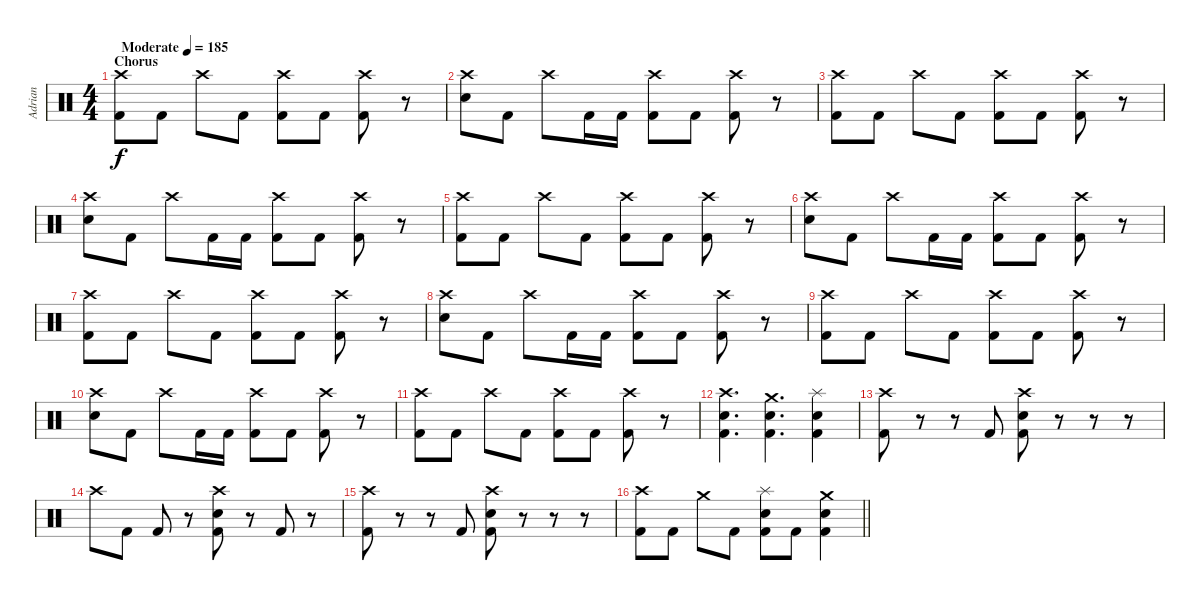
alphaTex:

\track ("Adrian" "Adrian") {instrument percussion}
\staff {score}
\articulation defaults
\ts (4 4)
\section ("" "Chorus")
\tempo (185 "Moderate")
\clef neutral
\ks c
("Crash high (hit)" "Kick (hit) 2").8{dy f} "Kick (hit) 2".8 "Crash high (hit)".8 "Kick (hit) 2".8 ("Crash high (hit)" "Kick (hit) 2").8 "Kick (hit) 2".8 ("Crash high (hit)" "Kick (hit) 2").8 r.8 |
("Crash high (hit)" "Snare (hit) 2").8 "Kick (hit) 2".8 "Crash high (hit)".8 "Kick (hit) 2".16 "Kick (hit) 2".16 ("Crash high (hit)" "Kick (hit) 2").8 "Kick (hit) 2".8 ("Crash high (hit)" "Kick (hit) 2").8 r.8 |
("Crash high (hit)" "Kick (hit) 2").8 "Kick (hit) 2".8 "Crash high (hit)".8 "Kick (hit) 2".8 ("Crash high (hit)" "Kick (hit) 2").8 "Kick (hit) 2".8 ("Crash high (hit)" "Kick (hit) 2").8 r.8 |
("Crash high (hit)" "Snare (hit) 2").8 "Kick (hit) 2".8 "Crash high (hit)".8 "Kick (hit) 2".16 "Kick (hit) 2".16 ("Crash high (hit)" "Kick (hit) 2").8 "Kick (hit) 2".8 ("Crash high (hit)" "Kick (hit) 2").8 r.8 |
("Crash high (hit)" "Kick (hit) 2").8 "Kick (hit) 2".8 "Crash high (hit)".8 "Kick (hit) 2".8 ("Crash high (hit)" "Kick (hit) 2").8 "Kick (hit) 2".8 ("Crash high (hit)" "Kick (hit) 2").8 r.8 |
("Crash high (hit)" "Snare (hit) 2").8 "Kick (hit) 2".8 "Crash high (hit)".8 "Kick (hit) 2".16 "Kick (hit) 2".16 ("Crash high (hit)" "Kick (hit) 2").8 "Kick (hit) 2".8 ("Crash high (hit)" "Kick (hit) 2").8 r.8 |
("Crash high (hit)" "Kick (hit) 2").8 "Kick (hit) 2".8 "Crash high (hit)".8 "Kick (hit) 2".8 ("Crash high (hit)" "Kick (hit) 2").8 "Kick (hit) 2".8 ("Crash high (hit)" "Kick (hit) 2").8 r.8 |
("Crash high (hit)" "Snare (hit) 2").8 "Kick (hit) 2".8 "Crash high (hit)".8 "Kick (hit) 2".16 "Kick (hit) 2".16 ("Crash high (hit)" "Kick (hit) 2").8 "Kick (hit) 2".8 ("Crash high (hit)" "Kick (hit) 2").8 r.8 |
("Crash high (hit)" "Kick (hit) 2").8 "Kick (hit) 2".8 "Crash high (hit)".8 "Kick (hit) 2".8 ("Crash high (hit)" "Kick (hit) 2").8 "Kick (hit) 2".8 ("Crash high (hit)" "Kick (hit) 2").8 r.8 |
("Crash high (hit)" "Snare (hit) 2").8 "Kick (hit) 2".8 "Crash high (hit)".8 "Kick (hit) 2".16 "Kick (hit) 2".16 ("Crash high (hit)" "Kick (hit) 2").8 "Kick (hit) 2".8 ("Crash high (hit)" "Kick (hit) 2").8 r.8 |
("Crash high (hit)" "Kick (hit) 2").8 "Kick (hit) 2".8 "Crash high (hit)".8 "Kick (hit) 2".8 ("Crash high (hit)" "Kick (hit) 2").8 "Kick (hit) 2".8 ("Crash high (hit)" "Kick (hit) 2").8 r.8 |
("Crash high (hit)" "Snare (hit) 2" "Kick (hit) 2").4{d} ("Crash medium (hit)" "Snare (hit) 2" "Kick (hit) 2").4{d} ("Splash (hit)" "Snare (hit) 2" "Kick (hit) 2").4 |
("Crash high (hit)" "Kick (hit) 2").8 r.8 r.8 "Kick (hit) 2".8 ("Crash high (hit)" "Snare (hit) 2" "Kick (hit) 2").8 r.8 r.8 r.8 |
"Crash high (hit)".8 "Kick (hit) 2".8 "Kick (hit) 2".8 r.8 ("Crash high (hit)" "Snare (hit) 2" "Kick (hit) 2").8 r.8 "Kick (hit) 2".8 r.8 |
("Crash high (hit)" "Kick (hit) 2").8 r.8 r.8 "Kick (hit) 2".8 ("Crash high (hit)" "Snare (hit) 2" "Kick (hit) 2").8 r.8 r.8 r.8 |
\barLineRight lightlight
("Crash high (hit)" "Kick (hit) 2").8 "Kick (hit) 2".8 "Crash medium (hit)".8 "Kick (hit) 2".8 ("Splash (hit)" "Snare (hit) 2" "Kick (hit) 2").8 "Kick (hit) 2".8 ("Crash medium (hit)" "Snare (hit) 2" "Kick (hit) 2").4
